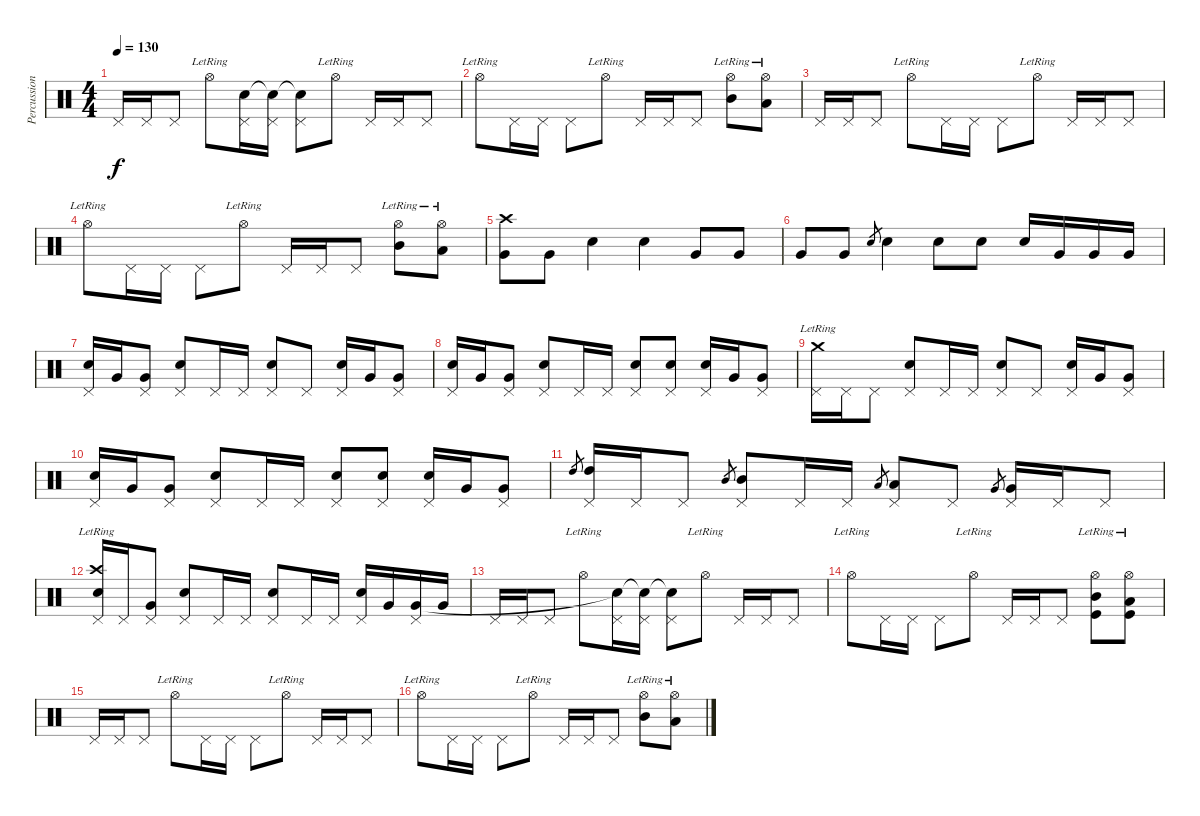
\track ("Percussions" "Percussion") {instrument percussion}
\staff {score}
\articulation defaults
\ts (4 4)
\tempo 130
\clef neutral
\ks c "Pedal Hi-Hat (hit)".16{dy f} "Pedal Hi-Hat (hit)".16 "Pedal Hi-Hat (hit)".8 "Hi-Hat (open)"{lr}.8
("Pedal Hi-Hat (hit)" "Snare (hit)"{t}).16 ("Pedal Hi-Hat (hit)" "Snare (hit)"{t}).16 ("Pedal Hi-Hat (hit)" "Snare (hit)"{t}).8 "Hi-Hat (open)"{lr}.8 "Pedal Hi-Hat (hit)".16 "Pedal Hi-Hat (hit)".16 "Pedal Hi-Hat (hit)".8 |
"Hi-Hat (open)"{lr}.8 "Pedal Hi-Hat (hit)".16 "Pedal Hi-Hat (hit)".16 "Pedal Hi-Hat (hit)".8 "Hi-Hat (open)"{lr}.8 "Pedal Hi-Hat (hit)".16 "Pedal Hi-Hat (hit)".16 "Pedal Hi-Hat (hit)".8 ("Hi-Hat (open)"{lr} "Mid Tom (hit)"{lr}).8 ("Hi-Hat (open)"{lr} "Low Floor Tom (hit)"{lr}).8 |
"Pedal Hi-Hat (hit)".16 "Pedal Hi-Hat (hit)".16 "Pedal Hi-Hat (hit)".8 "Hi-Hat (open)"{lr}.8 "Pedal Hi-Hat (hit)".16 "Pedal Hi-Hat (hit)".16 "Pedal Hi-Hat (hit)".8 "Hi-Hat (open)"{lr}.8 "Pedal Hi-Hat (hit)".16 "Pedal Hi-Hat (hit)".16 "Pedal Hi-Hat (hit)".8 |
"Hi-Hat (open)"{lr}.8 "Pedal Hi-Hat (hit)".16 "Pedal Hi-Hat (hit)".16 "Pedal Hi-Hat (hit)".8 "Hi-Hat (open)"{lr}.8 "Pedal Hi-Hat (hit)".16 "Pedal Hi-Hat (hit)".16 "Pedal Hi-Hat (hit)".8 ("Hi-Hat (open)"{lr} "Mid Tom (hit)"{lr}).8 ("Hi-Hat (open)"{lr} "Low Tom (hit)"{lr}).8 |
("Crash high (hit)" "Very Low Tom (hit)").8 "Very Low Tom (hit)".8 "Electric Snare (hit)".4 "Snare (hit) 2".4 "Very Low Tom (hit)".8 "Very Low Tom (hit)".8 |
"Very Low Tom (hit)".8 "Very Low Tom (hit)".8 "Electric Snare (hit)".8{gr} "Electric Snare (hit)".4 "Electric Snare (hit)".8 "Electric Snare (hit)".8 "Electric Snare (hit)".16 "Very Low Tom (hit)".16 "Very Low Tom (hit)".16 "Very Low Tom (hit)".16 |
("Pedal Hi-Hat (hit)" "Electric Snare (hit)").16 "Very Low Tom (hit)".16 ("Pedal Hi-Hat (hit)" "Very Low Tom (hit)").8 ("Pedal Hi-Hat (hit)" "Electric Snare (hit)").8 "Pedal Hi-Hat (hit)".16 "Pedal Hi-Hat (hit)".16 ("Pedal Hi-Hat (hit)" "Electric Snare (hit)").8 "Pedal Hi-Hat (hit)".8 ("Pedal Hi-Hat (hit)" "Electric Snare (hit)").16 "Very Low Tom (hit)".16 ("Pedal Hi-Hat (hit)" "Very Low Tom (hit)").8 |
("Pedal Hi-Hat (hit)" "Electric Snare (hit)").16 "Very Low Tom (hit)".16 ("Pedal Hi-Hat (hit)" "Very Low Tom (hit)").8 ("Pedal Hi-Hat (hit)" "Electric Snare (hit)").8 "Pedal Hi-Hat (hit)".16 "Pedal Hi-Hat (hit)".16 ("Pedal Hi-Hat (hit)" "Snare (hit) 2").8 ("Pedal Hi-Hat (hit)" "Snare (hit) 2").8 ("Pedal Hi-Hat (hit)" "Snare (hit) 2").16 "Very Low Tom (hit)".16 ("Pedal Hi-Hat (hit)" "Very Low Tom (hit)").8 |
("Pedal Hi-Hat (hit)" "Crash medium (hit)"{lr}).16 "Pedal Hi-Hat (hit)".16 "Pedal Hi-Hat (hit)".8 ("Pedal Hi-Hat (hit)" "Electric Snare (hit)").8 "Pedal Hi-Hat (hit)".16 "Pedal Hi-Hat (hit)".16 ("Pedal Hi-Hat (hit)" "Electric Snare (hit)").8 "Pedal Hi-Hat (hit)".8 ("Pedal Hi-Hat (hit)" "Electric Snare (hit)").16 "Very Low Tom (hit)".16 ("Pedal Hi-Hat (hit)" "Very Low Tom (hit)").8 |
("Pedal Hi-Hat (hit)" "Electric Snare (hit)").16 "Very Low Tom (hit)".16 ("Pedal Hi-Hat (hit)" "Very Low Tom (hit)").8 ("Pedal Hi-Hat (hit)" "Electric Snare (hit)").8 "Pedal Hi-Hat (hit)".16 "Pedal Hi-Hat (hit)".16 ("Pedal Hi-Hat (hit)" "Snare (hit) 2").8 ("Pedal Hi-Hat (hit)" "Snare (hit) 2").8 ("Pedal Hi-Hat (hit)" "Snare (hit) 2").16 "Very Low Tom (hit)".16 ("Pedal Hi-Hat (hit)" "Very Low Tom (hit)").8 |
"High Tom (hit)".8{gr} ("Pedal Hi-Hat (hit)" "High Tom (hit)").16 "Pedal Hi-Hat (hit)".16 "Pedal Hi-Hat (hit)".8 "Mid Tom (hit)".8{gr} ("Pedal Hi-Hat (hit)" "Mid Tom (hit)").8 "Pedal Hi-Hat (hit)".16 "Pedal Hi-Hat (hit)".16 "Low Tom (hit)".8{gr} ("Pedal Hi-Hat (hit)" "Low Tom (hit)").8 "Pedal Hi-Hat (hit)".8 "Very Low Tom (hit)".8{gr} ("Pedal Hi-Hat (hit)" "Very Low Tom (hit)").16 "Pedal Hi-Hat (hit)".16 "Pedal Hi-Hat (hit)".8 |
("Pedal Hi-Hat (hit)" "Crash high (hit)"{lr} "Electric Snare (hit)").16 "Pedal Hi-Hat (hit)".16 ("Pedal Hi-Hat (hit)" "Very Low Tom (hit)").8 ("Pedal Hi-Hat (hit)" "Electric Snare (hit)").8 "Pedal Hi-Hat (hit)".16 "Pedal Hi-Hat (hit)".16 ("Pedal Hi-Hat (hit)" "Electric Snare (hit)").8 "Pedal Hi-Hat (hit)".16 "Pedal Hi-Hat (hit)".16 ("Pedal Hi-Hat (hit)" "Electric Snare (hit)").16 "Very Low Tom (hit)".16 ("Pedal Hi-Hat (hit)" "Very Low Tom (hit)").16 "Very Low Tom (hit)".16 |
"Pedal Hi-Hat (hit)".16 "Pedal Hi-Hat (hit)".16 "Pedal Hi-Hat (hit)".8 "Hi-Hat (open)"{lr}.8 ("Pedal Hi-Hat (hit)" "Snare (hit)"{t}).16 ("Pedal Hi-Hat (hit)" "Snare (hit)"{t}).16 ("Pedal Hi-Hat (hit)" "Snare (hit)"{t}).8 "Hi-Hat (open)"{lr}.8 "Pedal Hi-Hat (hit)".16 "Pedal Hi-Hat (hit)".16 "Pedal Hi-Hat (hit)".8 |
"Hi-Hat (open)"{lr}.8 "Pedal Hi-Hat (hit)".16 "Pedal Hi-Hat (hit)".16 "Pedal Hi-Hat (hit)".8 "Hi-Hat (open)"{lr}.8 "Pedal Hi-Hat (hit)".16 "Pedal Hi-Hat (hit)".16 "Pedal Hi-Hat (hit)".8 ("Hi-Hat (open)"{lr} "Mid Tom (hit)"{lr} "Kick (hit)").8 ("Hi-Hat (open)"{lr} "Low Floor Tom (hit)"{lr} "Kick (hit)").8 |
"Pedal Hi-Hat (hit)".16 "Pedal Hi-Hat (hit)".16 "Pedal Hi-Hat (hit)".8 "Hi-Hat (open)"{lr}.8 "Pedal Hi-Hat (hit)".16 "Pedal Hi-Hat (hit)".16 "Pedal Hi-Hat (hit)".8 "Hi-Hat (open)"{lr}.8 "Pedal Hi-Hat (hit)".16 "Pedal Hi-Hat (hit)".16 "Pedal Hi-Hat (hit)".8 |
"Hi-Hat (open)"{lr}.8 "Pedal Hi-Hat (hit)".16 "Pedal Hi-Hat (hit)".16 "Pedal Hi-Hat (hit)".8 "Hi-Hat (open)"{lr}.8 "Pedal Hi-Hat (hit)".16 "Pedal Hi-Hat (hit)".16 "Pedal Hi-Hat (hit)".8 ("Hi-Hat (open)"{lr} "Mid Tom (hit)"{lr}).8 ("Hi-Hat (open)"{lr} "Low Tom (hit)"{lr}).8
